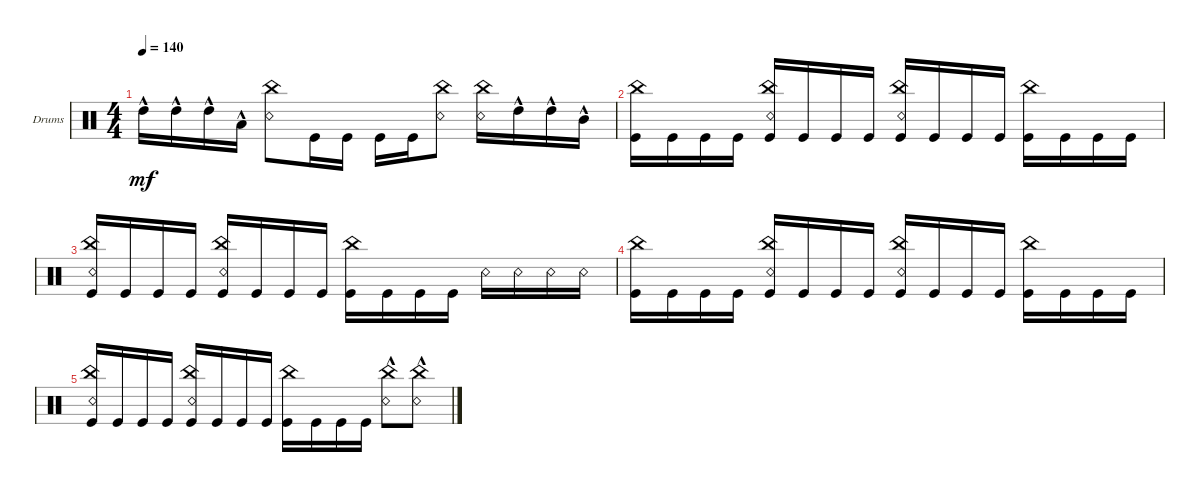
\defaultSystemsLayout 4
\bracketExtendMode groupsimilarinstruments
\firstSystemTrackNameOrientation horizontal
\otherSystemsTrackNameOrientation horizontal
\track ("Drumkit" "Drums") {instrument percussion}
\staff {score}
\articulation defaults
\ts (4 4)
\tempo 140
\clef neutral
\ks c "High Tom (hit)"{hac}.16{dy mf} "High Tom (hit)"{hac}.16 "High Tom (hit)"{hac}.16 "Low Tom (hit)"{hac}.16
("Snare (rim shot)" "China (hit)").8 "Kick (hit)".16 "Kick (hit)".16 "Kick (hit)".16 "Kick (hit)".16 ("Snare (rim shot)" "China (hit)").8 ("Snare (rim shot)" "China (hit)").16 "High Tom (hit)"{hac}.16 "High Tom (hit)"{hac}.16 "Mid Tom (hit)"{hac}.16 |
("China (hit)" "Kick (hit)").16 "Kick (hit)".16 "Kick (hit)".16 "Kick (hit)".16 ("Snare (rim shot)" "China (hit)" "Kick (hit)").16 "Kick (hit)".16 "Kick (hit)".16 "Kick (hit)".16 ("Snare (rim shot)" "China (hit)" "Kick (hit)").16 "Kick (hit)".16 "Kick (hit)".16 "Kick (hit)".16 ("Kick (hit)" "China (hit)").16 "Kick (hit)".16 "Kick (hit)".16 "Kick (hit)".16 |
("Snare (rim shot)" "China (hit)" "Kick (hit)").16 "Kick (hit)".16 "Kick (hit)".16 "Kick (hit)".16 ("Snare (rim shot)" "China (hit)" "Kick (hit)").16 "Kick (hit)".16 "Kick (hit)".16 "Kick (hit)".16 ("Kick (hit)" "China (hit)").16 "Kick (hit)".16 "Kick (hit)".16 "Kick (hit)".16 "Snare (rim shot)".16 "Snare (rim shot)".16 "Snare (rim shot)".16 "Snare (rim shot)".16 |
("China (hit)" "Kick (hit)").16 "Kick (hit)".16 "Kick (hit)".16 "Kick (hit)".16 ("Snare (rim shot)" "China (hit)" "Kick (hit)").16 "Kick (hit)".16 "Kick (hit)".16 "Kick (hit)".16 ("Snare (rim shot)" "China (hit)" "Kick (hit)").16 "Kick (hit)".16 "Kick (hit)".16 "Kick (hit)".16 ("Kick (hit)" "China (hit)").16 "Kick (hit)".16 "Kick (hit)".16 "Kick (hit)".16 |
("Snare (rim shot)" "China (hit)" "Kick (hit)").16 "Kick (hit)".16 "Kick (hit)".16 "Kick (hit)".16 ("Snare (rim shot)" "China (hit)" "Kick (hit)").16 "Kick (hit)".16 "Kick (hit)".16 "Kick (hit)".16 ("Kick (hit)" "China (hit)").16 "Kick (hit)".16 "Kick (hit)".16 "Kick (hit)".16 ("Snare (rim shot)"{hac} "China (hit)").8 ("Snare (rim shot)"{hac} "China (hit)").8
